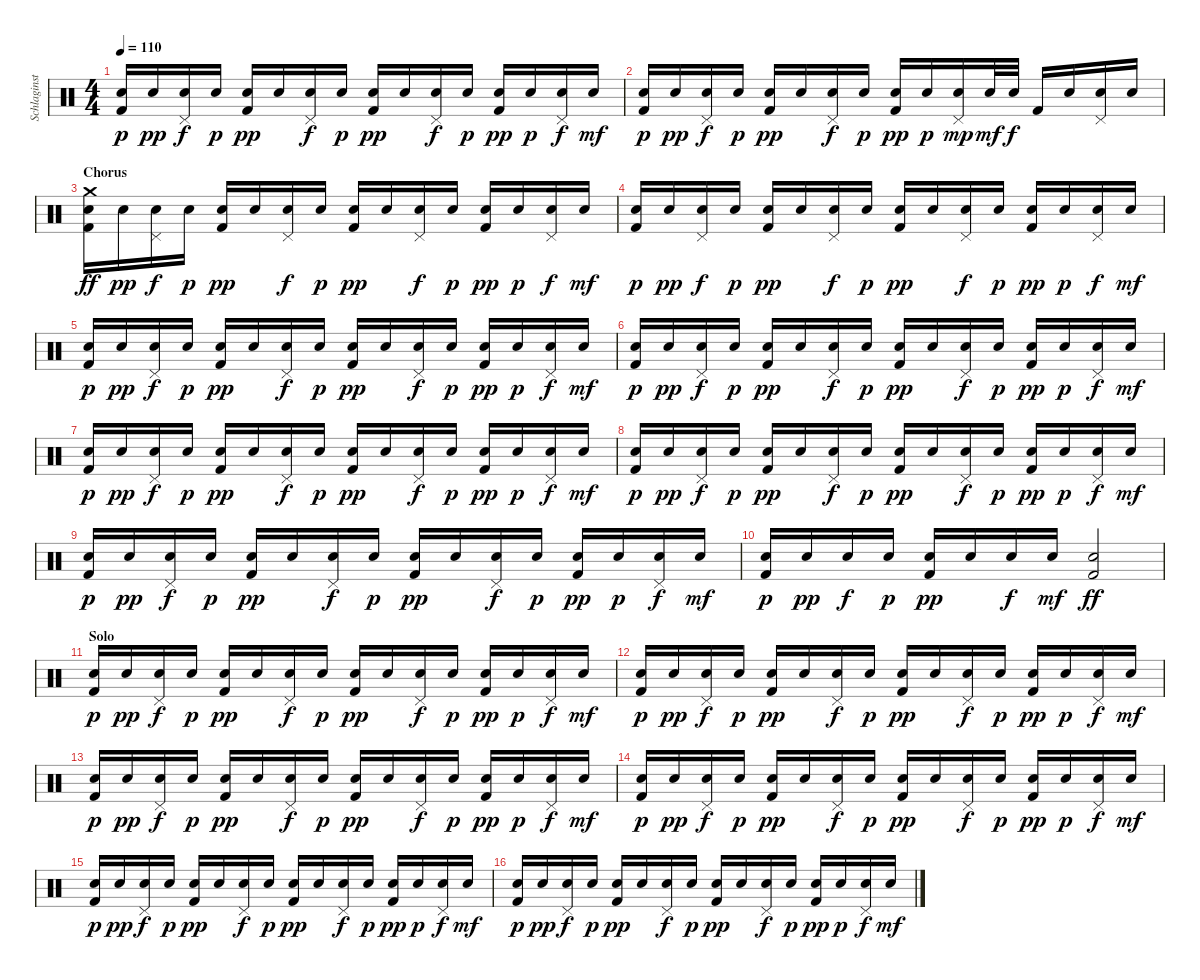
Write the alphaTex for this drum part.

\track ("Schlaginstrumente - Auswahl" "Schlaginst") {instrument percussion}
\staff {score}
\articulation defaults
\ts (4 4)
\tempo 110
\clef neutral
\ks c
("Snare (hit) 2" "Kick (hit) 2").16{dy p} "Snare (hit) 2".16{dy pp} ("Pedal Hi-Hat (hit)" "Snare (hit) 2").16{dy f} "Snare (hit) 2".16{dy p} ("Snare (hit) 2" "Kick (hit) 2").16{dy pp} "Snare (hit) 2".16 ("Pedal Hi-Hat (hit)" "Snare (hit) 2").16{dy f} "Snare (hit) 2".16{dy p} ("Snare (hit) 2" "Kick (hit) 2").16{dy pp} "Snare (hit) 2".16 ("Pedal Hi-Hat (hit)" "Snare (hit) 2").16{dy f} "Snare (hit) 2".16{dy p} ("Snare (hit) 2" "Kick (hit) 2").16{dy pp} "Snare (hit) 2".16{dy p} ("Pedal Hi-Hat (hit)" "Snare (hit) 2").16{dy f} "Snare (hit) 2".16{dy mf} |
("Snare (hit) 2" "Kick (hit) 2").16{dy p} "Snare (hit) 2".16{dy pp} ("Pedal Hi-Hat (hit)" "Snare (hit) 2").16{dy f} "Snare (hit) 2".16{dy p} ("Snare (hit) 2" "Kick (hit) 2").16{dy pp} "Snare (hit) 2".16 ("Pedal Hi-Hat (hit)" "Snare (hit) 2").16{dy f} "Snare (hit) 2".16{dy p} ("Snare (hit) 2" "Kick (hit) 2").16{dy pp} "Snare (hit) 2".16{dy p} ("Pedal Hi-Hat (hit)" "Snare (hit) 2").16{dy mp} "Snare (hit) 2".32{dy mf} "Snare (hit) 2".32{dy f} "Kick (hit) 2".16 "Snare (hit) 2".16 ("Pedal Hi-Hat (hit)" "Snare (hit) 2").16 "Snare (hit) 2".16 |
\section ("" "Chorus")
("Crash medium (hit)" "Snare (hit) 2" "Kick (hit) 2").16{dy ff} "Snare (hit) 2".16{dy pp} ("Pedal Hi-Hat (hit)" "Snare (hit) 2").16{dy f} "Snare (hit) 2".16{dy p} ("Snare (hit) 2" "Kick (hit) 2").16{dy pp} "Snare (hit) 2".16 ("Pedal Hi-Hat (hit)" "Snare (hit) 2").16{dy f} "Snare (hit) 2".16{dy p} ("Snare (hit) 2" "Kick (hit) 2").16{dy pp} "Snare (hit) 2".16 ("Pedal Hi-Hat (hit)" "Snare (hit) 2").16{dy f} "Snare (hit) 2".16{dy p} ("Snare (hit) 2" "Kick (hit) 2").16{dy pp} "Snare (hit) 2".16{dy p} ("Pedal Hi-Hat (hit)" "Snare (hit) 2").16{dy f} "Snare (hit) 2".16{dy mf} |
("Snare (hit) 2" "Kick (hit) 2").16{dy p} "Snare (hit) 2".16{dy pp} ("Pedal Hi-Hat (hit)" "Snare (hit) 2").16{dy f} "Snare (hit) 2".16{dy p} ("Snare (hit) 2" "Kick (hit) 2").16{dy pp} "Snare (hit) 2".16 ("Pedal Hi-Hat (hit)" "Snare (hit) 2").16{dy f} "Snare (hit) 2".16{dy p} ("Snare (hit) 2" "Kick (hit) 2").16{dy pp} "Snare (hit) 2".16 ("Pedal Hi-Hat (hit)" "Snare (hit) 2").16{dy f} "Snare (hit) 2".16{dy p} ("Snare (hit) 2" "Kick (hit) 2").16{dy pp} "Snare (hit) 2".16{dy p} ("Pedal Hi-Hat (hit)" "Snare (hit) 2").16{dy f} "Snare (hit) 2".16{dy mf} |
("Snare (hit) 2" "Kick (hit) 2").16{dy p} "Snare (hit) 2".16{dy pp} ("Pedal Hi-Hat (hit)" "Snare (hit) 2").16{dy f} "Snare (hit) 2".16{dy p} ("Snare (hit) 2" "Kick (hit) 2").16{dy pp} "Snare (hit) 2".16 ("Pedal Hi-Hat (hit)" "Snare (hit) 2").16{dy f} "Snare (hit) 2".16{dy p} ("Snare (hit) 2" "Kick (hit) 2").16{dy pp} "Snare (hit) 2".16 ("Pedal Hi-Hat (hit)" "Snare (hit) 2").16{dy f} "Snare (hit) 2".16{dy p} ("Snare (hit) 2" "Kick (hit) 2").16{dy pp} "Snare (hit) 2".16{dy p} ("Pedal Hi-Hat (hit)" "Snare (hit) 2").16{dy f} "Snare (hit) 2".16{dy mf} |
("Snare (hit) 2" "Kick (hit) 2").16{dy p} "Snare (hit) 2".16{dy pp} ("Pedal Hi-Hat (hit)" "Snare (hit) 2").16{dy f} "Snare (hit) 2".16{dy p} ("Snare (hit) 2" "Kick (hit) 2").16{dy pp} "Snare (hit) 2".16 ("Pedal Hi-Hat (hit)" "Snare (hit) 2").16{dy f} "Snare (hit) 2".16{dy p} ("Snare (hit) 2" "Kick (hit) 2").16{dy pp} "Snare (hit) 2".16 ("Pedal Hi-Hat (hit)" "Snare (hit) 2").16{dy f} "Snare (hit) 2".16{dy p} ("Snare (hit) 2" "Kick (hit) 2").16{dy pp} "Snare (hit) 2".16{dy p} ("Pedal Hi-Hat (hit)" "Snare (hit) 2").16{dy f} "Snare (hit) 2".16{dy mf} |
("Snare (hit) 2" "Kick (hit) 2").16{dy p} "Snare (hit) 2".16{dy pp} ("Pedal Hi-Hat (hit)" "Snare (hit) 2").16{dy f} "Snare (hit) 2".16{dy p} ("Snare (hit) 2" "Kick (hit) 2").16{dy pp} "Snare (hit) 2".16 ("Pedal Hi-Hat (hit)" "Snare (hit) 2").16{dy f} "Snare (hit) 2".16{dy p} ("Snare (hit) 2" "Kick (hit) 2").16{dy pp} "Snare (hit) 2".16 ("Pedal Hi-Hat (hit)" "Snare (hit) 2").16{dy f} "Snare (hit) 2".16{dy p} ("Snare (hit) 2" "Kick (hit) 2").16{dy pp} "Snare (hit) 2".16{dy p} ("Pedal Hi-Hat (hit)" "Snare (hit) 2").16{dy f} "Snare (hit) 2".16{dy mf} |
("Snare (hit) 2" "Kick (hit) 2").16{dy p} "Snare (hit) 2".16{dy pp} ("Pedal Hi-Hat (hit)" "Snare (hit) 2").16{dy f} "Snare (hit) 2".16{dy p} ("Snare (hit) 2" "Kick (hit) 2").16{dy pp} "Snare (hit) 2".16 ("Pedal Hi-Hat (hit)" "Snare (hit) 2").16{dy f} "Snare (hit) 2".16{dy p} ("Snare (hit) 2" "Kick (hit) 2").16{dy pp} "Snare (hit) 2".16 ("Pedal Hi-Hat (hit)" "Snare (hit) 2").16{dy f} "Snare (hit) 2".16{dy p} ("Snare (hit) 2" "Kick (hit) 2").16{dy pp} "Snare (hit) 2".16{dy p} ("Pedal Hi-Hat (hit)" "Snare (hit) 2").16{dy f} "Snare (hit) 2".16{dy mf} |
("Snare (hit) 2" "Kick (hit) 2").16{dy p} "Snare (hit) 2".16{dy pp} ("Pedal Hi-Hat (hit)" "Snare (hit) 2").16{dy f} "Snare (hit) 2".16{dy p} ("Snare (hit) 2" "Kick (hit) 2").16{dy pp} "Snare (hit) 2".16 ("Pedal Hi-Hat (hit)" "Snare (hit) 2").16{dy f} "Snare (hit) 2".16{dy p} ("Snare (hit) 2" "Kick (hit) 2").16{dy pp} "Snare (hit) 2".16 ("Pedal Hi-Hat (hit)" "Snare (hit) 2").16{dy f} "Snare (hit) 2".16{dy p} ("Snare (hit) 2" "Kick (hit) 2").16{dy pp} "Snare (hit) 2".16{dy p} ("Pedal Hi-Hat (hit)" "Snare (hit) 2").16{dy f} "Snare (hit) 2".16{dy mf} |
("Snare (hit) 2" "Kick (hit) 2").16{dy p} "Snare (hit) 2".16{dy pp} "Snare (hit) 2".16{dy f} "Snare (hit) 2".16{dy p} ("Snare (hit) 2" "Kick (hit) 2").16{dy pp} "Snare (hit) 2".16 "Snare (hit) 2".16{dy f} "Snare (hit) 2".16{dy mf} ("Snare (hit) 2" "Kick (hit) 2").2{dy ff} |
\section ("" "Solo")
("Snare (hit) 2" "Kick (hit) 2").16{dy p} "Snare (hit) 2".16{dy pp} ("Pedal Hi-Hat (hit)" "Snare (hit) 2").16{dy f} "Snare (hit) 2".16{dy p} ("Snare (hit) 2" "Kick (hit) 2").16{dy pp} "Snare (hit) 2".16 ("Pedal Hi-Hat (hit)" "Snare (hit) 2").16{dy f} "Snare (hit) 2".16{dy p} ("Snare (hit) 2" "Kick (hit) 2").16{dy pp} "Snare (hit) 2".16 ("Pedal Hi-Hat (hit)" "Snare (hit) 2").16{dy f} "Snare (hit) 2".16{dy p} ("Snare (hit) 2" "Kick (hit) 2").16{dy pp} "Snare (hit) 2".16{dy p} ("Pedal Hi-Hat (hit)" "Snare (hit) 2").16{dy f} "Snare (hit) 2".16{dy mf} |
("Snare (hit) 2" "Kick (hit) 2").16{dy p} "Snare (hit) 2".16{dy pp} ("Pedal Hi-Hat (hit)" "Snare (hit) 2").16{dy f} "Snare (hit) 2".16{dy p} ("Snare (hit) 2" "Kick (hit) 2").16{dy pp} "Snare (hit) 2".16 ("Pedal Hi-Hat (hit)" "Snare (hit) 2").16{dy f} "Snare (hit) 2".16{dy p} ("Snare (hit) 2" "Kick (hit) 2").16{dy pp} "Snare (hit) 2".16 ("Pedal Hi-Hat (hit)" "Snare (hit) 2").16{dy f} "Snare (hit) 2".16{dy p} ("Snare (hit) 2" "Kick (hit) 2").16{dy pp} "Snare (hit) 2".16{dy p} ("Pedal Hi-Hat (hit)" "Snare (hit) 2").16{dy f} "Snare (hit) 2".16{dy mf} |
("Snare (hit) 2" "Kick (hit) 2").16{dy p} "Snare (hit) 2".16{dy pp} ("Pedal Hi-Hat (hit)" "Snare (hit) 2").16{dy f} "Snare (hit) 2".16{dy p} ("Snare (hit) 2" "Kick (hit) 2").16{dy pp} "Snare (hit) 2".16 ("Pedal Hi-Hat (hit)" "Snare (hit) 2").16{dy f} "Snare (hit) 2".16{dy p} ("Snare (hit) 2" "Kick (hit) 2").16{dy pp} "Snare (hit) 2".16 ("Pedal Hi-Hat (hit)" "Snare (hit) 2").16{dy f} "Snare (hit) 2".16{dy p} ("Snare (hit) 2" "Kick (hit) 2").16{dy pp} "Snare (hit) 2".16{dy p} ("Pedal Hi-Hat (hit)" "Snare (hit) 2").16{dy f} "Snare (hit) 2".16{dy mf} |
("Snare (hit) 2" "Kick (hit) 2").16{dy p} "Snare (hit) 2".16{dy pp} ("Pedal Hi-Hat (hit)" "Snare (hit) 2").16{dy f} "Snare (hit) 2".16{dy p} ("Snare (hit) 2" "Kick (hit) 2").16{dy pp} "Snare (hit) 2".16 ("Pedal Hi-Hat (hit)" "Snare (hit) 2").16{dy f} "Snare (hit) 2".16{dy p} ("Snare (hit) 2" "Kick (hit) 2").16{dy pp} "Snare (hit) 2".16 ("Pedal Hi-Hat (hit)" "Snare (hit) 2").16{dy f} "Snare (hit) 2".16{dy p} ("Snare (hit) 2" "Kick (hit) 2").16{dy pp} "Snare (hit) 2".16{dy p} ("Pedal Hi-Hat (hit)" "Snare (hit) 2").16{dy f} "Snare (hit) 2".16{dy mf} |
("Snare (hit) 2" "Kick (hit) 2").16{dy p} "Snare (hit) 2".16{dy pp} ("Pedal Hi-Hat (hit)" "Snare (hit) 2").16{dy f} "Snare (hit) 2".16{dy p} ("Snare (hit) 2" "Kick (hit) 2").16{dy pp} "Snare (hit) 2".16 ("Pedal Hi-Hat (hit)" "Snare (hit) 2").16{dy f} "Snare (hit) 2".16{dy p} ("Snare (hit) 2" "Kick (hit) 2").16{dy pp} "Snare (hit) 2".16 ("Pedal Hi-Hat (hit)" "Snare (hit) 2").16{dy f} "Snare (hit) 2".16{dy p} ("Snare (hit) 2" "Kick (hit) 2").16{dy pp} "Snare (hit) 2".16{dy p} ("Pedal Hi-Hat (hit)" "Snare (hit) 2").16{dy f} "Snare (hit) 2".16{dy mf} |
("Snare (hit) 2" "Kick (hit) 2").16{dy p} "Snare (hit) 2".16{dy pp} ("Pedal Hi-Hat (hit)" "Snare (hit) 2").16{dy f} "Snare (hit) 2".16{dy p} ("Snare (hit) 2" "Kick (hit) 2").16{dy pp} "Snare (hit) 2".16 ("Pedal Hi-Hat (hit)" "Snare (hit) 2").16{dy f} "Snare (hit) 2".16{dy p} ("Snare (hit) 2" "Kick (hit) 2").16{dy pp} "Snare (hit) 2".16 ("Pedal Hi-Hat (hit)" "Snare (hit) 2").16{dy f} "Snare (hit) 2".16{dy p} ("Snare (hit) 2" "Kick (hit) 2").16{dy pp} "Snare (hit) 2".16{dy p} ("Pedal Hi-Hat (hit)" "Snare (hit) 2").16{dy f} "Snare (hit) 2".16{dy mf}
